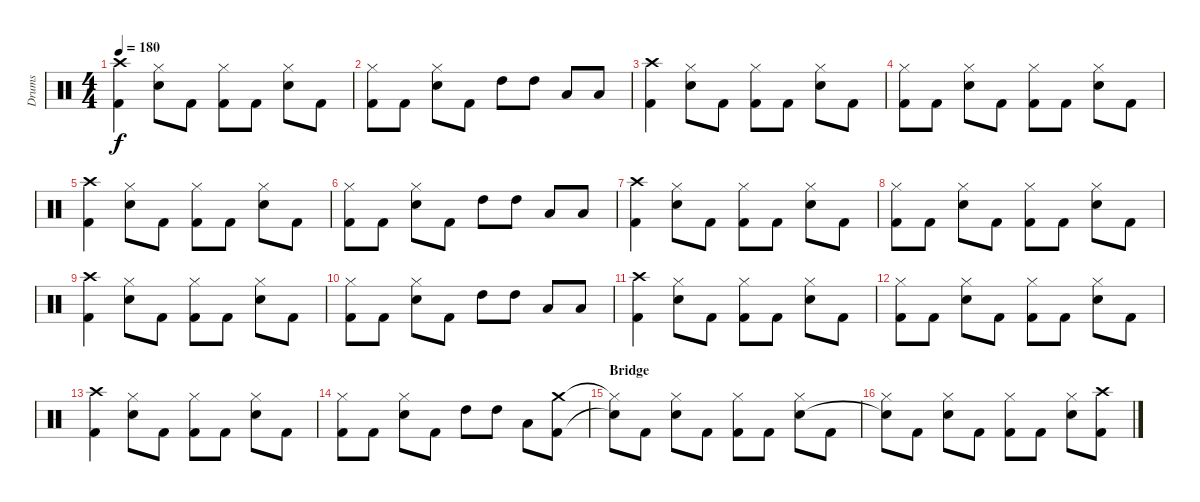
\track ("Drums" "Drums") {instrument percussion}
\staff {score}
\articulation defaults
\ts (4 4)
\tempo 180
\clef neutral
\ks c
("Crash high (hit)" "Kick (hit) 2").4{dy f} ("Hi-Hat (closed)" "Electric Snare (hit)").8 "Kick (hit) 2".8 ("Hi-Hat (closed)" "Kick (hit) 2").8 "Kick (hit) 2".8 ("Hi-Hat (closed)" "Electric Snare (hit)").8 "Kick (hit) 2".8 |
("Hi-Hat (closed)" "Kick (hit) 2").8 "Kick (hit) 2".8 ("Hi-Hat (closed)" "Electric Snare (hit)").8 "Kick (hit) 2".8 "High Tom (hit)".8 "High Tom (hit)".8 "Low Tom (hit)".8 "Low Tom (hit)".8 |
("Crash high (hit)" "Kick (hit) 2").4 ("Hi-Hat (closed)" "Electric Snare (hit)").8 "Kick (hit) 2".8 ("Hi-Hat (closed)" "Kick (hit) 2").8 "Kick (hit) 2".8 ("Hi-Hat (closed)" "Electric Snare (hit)").8 "Kick (hit) 2".8 |
("Hi-Hat (closed)" "Kick (hit) 2").8 "Kick (hit) 2".8 ("Hi-Hat (closed)" "Electric Snare (hit)").8 "Kick (hit) 2".8 ("Hi-Hat (closed)" "Kick (hit) 2").8 "Kick (hit) 2".8 ("Hi-Hat (closed)" "Electric Snare (hit)").8 "Kick (hit) 2".8 |
("Crash high (hit)" "Kick (hit) 2").4 ("Hi-Hat (closed)" "Electric Snare (hit)").8 "Kick (hit) 2".8 ("Hi-Hat (closed)" "Kick (hit) 2").8 "Kick (hit) 2".8 ("Hi-Hat (closed)" "Electric Snare (hit)").8 "Kick (hit) 2".8 |
("Hi-Hat (closed)" "Kick (hit) 2").8 "Kick (hit) 2".8 ("Hi-Hat (closed)" "Electric Snare (hit)").8 "Kick (hit) 2".8 "High Tom (hit)".8 "High Tom (hit)".8 "Low Tom (hit)".8 "Low Tom (hit)".8 |
("Crash high (hit)" "Kick (hit) 2").4 ("Hi-Hat (closed)" "Electric Snare (hit)").8 "Kick (hit) 2".8 ("Hi-Hat (closed)" "Kick (hit) 2").8 "Kick (hit) 2".8 ("Hi-Hat (closed)" "Electric Snare (hit)").8 "Kick (hit) 2".8 |
("Hi-Hat (closed)" "Kick (hit) 2").8 "Kick (hit) 2".8 ("Hi-Hat (closed)" "Electric Snare (hit)").8 "Kick (hit) 2".8 ("Hi-Hat (closed)" "Kick (hit) 2").8 "Kick (hit) 2".8 ("Hi-Hat (closed)" "Electric Snare (hit)").8 "Kick (hit) 2".8 |
("Crash high (hit)" "Kick (hit) 2").4 ("Hi-Hat (closed)" "Electric Snare (hit)").8 "Kick (hit) 2".8 ("Hi-Hat (closed)" "Kick (hit) 2").8 "Kick (hit) 2".8 ("Hi-Hat (closed)" "Electric Snare (hit)").8 "Kick (hit) 2".8 |
("Hi-Hat (closed)" "Kick (hit) 2").8 "Kick (hit) 2".8 ("Hi-Hat (closed)" "Electric Snare (hit)").8 "Kick (hit) 2".8 "High Tom (hit)".8 "High Tom (hit)".8 "Low Tom (hit)".8 "Low Tom (hit)".8 |
("Crash high (hit)" "Kick (hit) 2").4 ("Hi-Hat (closed)" "Electric Snare (hit)").8 "Kick (hit) 2".8 ("Hi-Hat (closed)" "Kick (hit) 2").8 "Kick (hit) 2".8 ("Hi-Hat (closed)" "Electric Snare (hit)").8 "Kick (hit) 2".8 |
("Hi-Hat (closed)" "Kick (hit) 2").8 "Kick (hit) 2".8 ("Hi-Hat (closed)" "Electric Snare (hit)").8 "Kick (hit) 2".8 ("Hi-Hat (closed)" "Kick (hit) 2").8 "Kick (hit) 2".8 ("Hi-Hat (closed)" "Electric Snare (hit)").8 "Kick (hit) 2".8 |
("Crash high (hit)" "Kick (hit) 2").4 ("Hi-Hat (closed)" "Electric Snare (hit)").8 "Kick (hit) 2".8 ("Hi-Hat (closed)" "Kick (hit) 2").8 "Kick (hit) 2".8 ("Hi-Hat (closed)" "Electric Snare (hit)").8 "Kick (hit) 2".8 |
("Hi-Hat (closed)" "Kick (hit) 2").8 "Kick (hit) 2".8 ("Hi-Hat (closed)" "Electric Snare (hit)").8 "Kick (hit) 2".8 "High Tom (hit)".8 "High Tom (hit)".8 "Low Tom (hit)".8 ("Crash medium (hit)" "Kick (hit) 2").8 |
\section ("" "Bridge")
("Hi-Hat (closed)"{t} "Snare (hit)"{t}).8 "Kick (hit) 2".8 ("Hi-Hat (closed)" "Electric Snare (hit)").8 "Kick (hit) 2".8 ("Hi-Hat (closed)" "Kick (hit) 2").8 "Kick (hit) 2".8 ("Hi-Hat (closed)" "Electric Snare (hit)").8 "Kick (hit) 2".8 |
("Hi-Hat (closed)" "Snare (hit)"{t}).8 "Kick (hit) 2".8 ("Hi-Hat (closed)" "Electric Snare (hit)").8 "Kick (hit) 2".8 ("Hi-Hat (closed)" "Kick (hit) 2").8 "Kick (hit) 2".8 ("Hi-Hat (closed)" "Electric Snare (hit)").8 ("Crash high (hit)" "Kick (hit) 2").8
